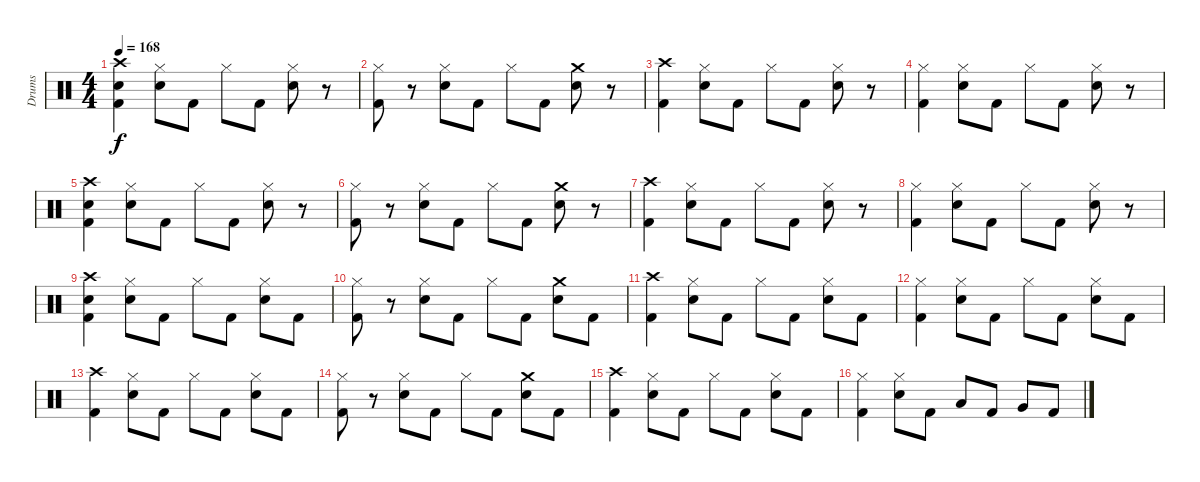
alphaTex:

\track ("Drums" "Drums") {instrument percussion}
\staff {score}
\articulation defaults
\ts (4 4)
\tempo 168
\clef neutral
\ks c
("Crash high (hit)" "Snare (hit) 2" "Kick (hit) 2").4{dy f} ("Hi-Hat (closed)" "Snare (hit) 2").8 "Kick (hit) 2".8 "Hi-Hat (closed)".8 "Kick (hit) 2".8 ("Hi-Hat (closed)" "Snare (hit) 2").8 r.8 |
("Hi-Hat (closed)" "Kick (hit) 2").8 r.8 ("Hi-Hat (closed)" "Snare (hit) 2").8 "Kick (hit) 2".8 "Hi-Hat (closed)".8 "Kick (hit) 2".8 ("Crash medium (hit)" "Snare (hit) 2").8 r.8 |
("Crash high (hit)" "Kick (hit) 2").4 ("Hi-Hat (closed)" "Snare (hit) 2").8 "Kick (hit) 2".8 "Hi-Hat (closed)".8 "Kick (hit) 2".8 ("Hi-Hat (closed)" "Snare (hit) 2").8 r.8 |
("Hi-Hat (closed)" "Kick (hit) 2").4 ("Hi-Hat (closed)" "Snare (hit) 2").8 "Kick (hit) 2".8 "Hi-Hat (closed)".8 "Kick (hit) 2".8 ("Hi-Hat (closed)" "Snare (hit) 2").8 r.8 |
("Crash high (hit)" "Snare (hit) 2" "Kick (hit) 2").4 ("Hi-Hat (closed)" "Snare (hit) 2").8 "Kick (hit) 2".8 "Hi-Hat (closed)".8 "Kick (hit) 2".8 ("Hi-Hat (closed)" "Snare (hit) 2").8 r.8 |
("Hi-Hat (closed)" "Kick (hit) 2").8 r.8 ("Hi-Hat (closed)" "Snare (hit) 2").8 "Kick (hit) 2".8 "Hi-Hat (closed)".8 "Kick (hit) 2".8 ("Crash medium (hit)" "Snare (hit) 2").8 r.8 |
("Crash high (hit)" "Kick (hit) 2").4 ("Hi-Hat (closed)" "Snare (hit) 2").8 "Kick (hit) 2".8 "Hi-Hat (closed)".8 "Kick (hit) 2".8 ("Hi-Hat (closed)" "Snare (hit) 2").8 r.8 |
("Hi-Hat (closed)" "Kick (hit) 2").4 ("Hi-Hat (closed)" "Snare (hit) 2").8 "Kick (hit) 2".8 "Hi-Hat (closed)".8 "Kick (hit) 2".8 ("Hi-Hat (closed)" "Snare (hit) 2").8 r.8 |
("Crash high (hit)" "Snare (hit) 2" "Kick (hit) 2").4 ("Hi-Hat (closed)" "Snare (hit) 2").8 "Kick (hit) 2".8 "Hi-Hat (closed)".8 "Kick (hit) 2".8 ("Hi-Hat (closed)" "Snare (hit) 2").8 "Kick (hit) 2".8 |
("Hi-Hat (closed)" "Kick (hit) 2").8 r.8 ("Hi-Hat (closed)" "Snare (hit) 2").8 "Kick (hit) 2".8 "Hi-Hat (closed)".8 "Kick (hit) 2".8 ("Crash medium (hit)" "Snare (hit) 2").8 "Kick (hit) 2".8 |
("Crash high (hit)" "Kick (hit) 2").4 ("Hi-Hat (closed)" "Snare (hit) 2").8 "Kick (hit) 2".8 "Hi-Hat (closed)".8 "Kick (hit) 2".8 ("Hi-Hat (closed)" "Snare (hit) 2").8 "Kick (hit) 2".8 |
("Hi-Hat (closed)" "Kick (hit) 2").4 ("Hi-Hat (closed)" "Snare (hit) 2").8 "Kick (hit) 2".8 "Hi-Hat (closed)".8 "Kick (hit) 2".8 ("Hi-Hat (closed)" "Snare (hit) 2").8 "Kick (hit) 2".8 |
("Crash high (hit)" "Kick (hit) 2").4 ("Hi-Hat (closed)" "Snare (hit) 2").8 "Kick (hit) 2".8 "Hi-Hat (closed)".8 "Kick (hit) 2".8 ("Hi-Hat (closed)" "Snare (hit) 2").8 "Kick (hit) 2".8 |
("Hi-Hat (closed)" "Kick (hit) 2").8 r.8 ("Hi-Hat (closed)" "Snare (hit) 2").8 "Kick (hit) 2".8 "Hi-Hat (closed)".8 "Kick (hit) 2".8 ("Crash medium (hit)" "Snare (hit) 2").8 "Kick (hit) 2".8 |
("Crash high (hit)" "Kick (hit) 2").4 ("Hi-Hat (closed)" "Snare (hit) 2").8 "Kick (hit) 2".8 "Hi-Hat (closed)".8 "Kick (hit) 2".8 ("Hi-Hat (closed)" "Snare (hit) 2").8 "Kick (hit) 2".8 |
("Hi-Hat (closed)" "Kick (hit) 2").4 ("Hi-Hat (closed)" "Snare (hit) 2").8 "Kick (hit) 2".8 "Low Tom (hit)".8 "Kick (hit) 2".8 "Very Low Tom (hit)".8 "Kick (hit) 2".8
